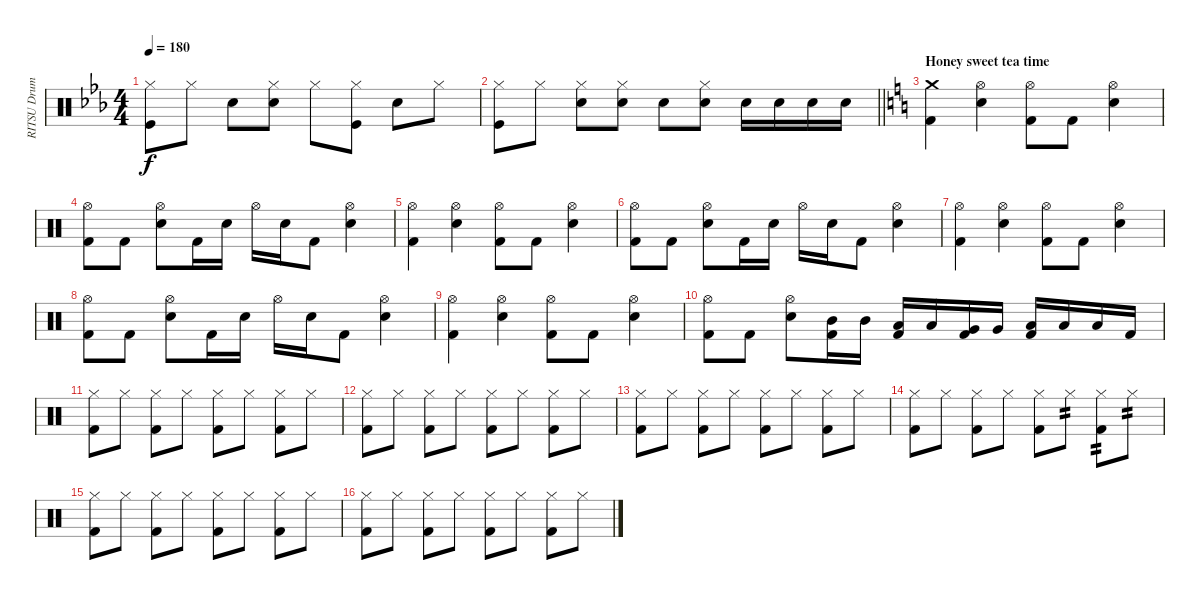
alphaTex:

\track ("RITSU Drums" "RITSU Drum") {instrument percussion}
\staff {score}
\articulation defaults
\ts (4 4)
\tempo 180
\clef neutral
\ks cminor
("Hi-Hat (closed)" "Kick (hit)").8{dy f} "Hi-Hat (closed)".8 "Snare (hit) 2".8 ("Snare (hit) 2" "Hi-Hat (closed)").8 "Hi-Hat (closed)".8 ("Hi-Hat (closed)" "Kick (hit)").8 "Snare (hit) 2".8 "Hi-Hat (closed)".8 |
\barLineRight lightlight
("Hi-Hat (closed)" "Kick (hit)").8 "Hi-Hat (closed)".8 ("Hi-Hat (closed)" "Snare (hit) 2").8 ("Snare (hit) 2" "Hi-Hat (closed)").8 "Snare (hit) 2".8 ("Snare (hit) 2" "Hi-Hat (closed)").8 "Snare (hit) 2".16 "Snare (hit) 2".16 "Snare (hit) 2".16 "Snare (hit) 2".16 |
\section ("" "Honey sweet tea time")
\ks c
("Crash medium (hit)" "Kick (hit) 2").4 ("Hi-Hat (open)" "Electric Snare (hit)").4 ("Hi-Hat (open)" "Kick (hit) 2").8 "Kick (hit) 2".8 ("Hi-Hat (open)" "Electric Snare (hit)").4 |
("Hi-Hat (open)" "Kick (hit) 2").8 "Kick (hit) 2".8 ("Hi-Hat (open)" "Electric Snare (hit)").8 "Kick (hit) 2".16 "Electric Snare (hit)".16 "Hi-Hat (open)".16 "Electric Snare (hit)".16 "Kick (hit) 2".8 ("Hi-Hat (open)" "Electric Snare (hit)").4 |
("Hi-Hat (open)" "Kick (hit) 2").4 ("Hi-Hat (open)" "Electric Snare (hit)").4 ("Hi-Hat (open)" "Kick (hit) 2").8 "Kick (hit) 2".8 ("Hi-Hat (open)" "Electric Snare (hit)").4 |
("Hi-Hat (open)" "Kick (hit) 2").8 "Kick (hit) 2".8 ("Hi-Hat (open)" "Electric Snare (hit)").8 "Kick (hit) 2".16 "Electric Snare (hit)".16 "Hi-Hat (open)".16 "Electric Snare (hit)".16 "Kick (hit) 2".8 ("Hi-Hat (open)" "Electric Snare (hit)").4 |
("Hi-Hat (open)" "Kick (hit) 2").4 ("Hi-Hat (open)" "Electric Snare (hit)").4 ("Hi-Hat (open)" "Kick (hit) 2").8 "Kick (hit) 2".8 ("Hi-Hat (open)" "Electric Snare (hit)").4 |
("Hi-Hat (open)" "Kick (hit) 2").8 "Kick (hit) 2".8 ("Hi-Hat (open)" "Electric Snare (hit)").8 "Kick (hit) 2".16 "Electric Snare (hit)".16 "Hi-Hat (open)".16 "Electric Snare (hit)".16 "Kick (hit) 2".8 ("Hi-Hat (open)" "Electric Snare (hit)").4 |
("Hi-Hat (open)" "Kick (hit) 2").4 ("Hi-Hat (open)" "Electric Snare (hit)").4 ("Hi-Hat (open)" "Kick (hit) 2").8 "Kick (hit) 2".8 ("Hi-Hat (open)" "Electric Snare (hit)").4 |
("Hi-Hat (open)" "Kick (hit) 2").8 "Kick (hit) 2".8 ("Hi-Hat (open)" "Electric Snare (hit)").8 ("Mid Tom (hit)" "Kick (hit) 2").16 "Mid Tom (hit)".16 ("Low Tom (hit)" "Kick (hit) 2").16 "Low Tom (hit)".16 ("Very Low Tom (hit)" "Kick (hit) 2").16 "Very Low Tom (hit)".16 ("Low Floor Tom (hit)" "Kick (hit) 2").16 "Low Floor Tom (hit)".16 "Low Floor Tom (hit)".16 "Kick (hit) 2".16 |
("Hi-Hat (closed)" "Kick (hit) 2").8 "Hi-Hat (closed)".8 ("Hi-Hat (closed)" "Kick (hit) 2").8 "Hi-Hat (closed)".8 ("Hi-Hat (closed)" "Kick (hit) 2").8 "Hi-Hat (closed)".8 ("Hi-Hat (closed)" "Kick (hit) 2").8 "Hi-Hat (closed)".8 |
("Hi-Hat (closed)" "Kick (hit) 2").8 "Hi-Hat (closed)".8 ("Hi-Hat (closed)" "Kick (hit) 2").8 "Hi-Hat (closed)".8 ("Hi-Hat (closed)" "Kick (hit) 2").8 "Hi-Hat (closed)".8 ("Hi-Hat (closed)" "Kick (hit) 2").8 "Hi-Hat (closed)".8 |
("Hi-Hat (closed)" "Kick (hit) 2").8 "Hi-Hat (closed)".8 ("Hi-Hat (closed)" "Kick (hit) 2").8 "Hi-Hat (closed)".8 ("Hi-Hat (closed)" "Kick (hit) 2").8 "Hi-Hat (closed)".8 ("Hi-Hat (closed)" "Kick (hit) 2").8 "Hi-Hat (closed)".8 |
("Hi-Hat (closed)" "Kick (hit) 2").8 "Hi-Hat (closed)".8 ("Hi-Hat (closed)" "Kick (hit) 2").8 "Hi-Hat (closed)".8 ("Hi-Hat (closed)" "Kick (hit) 2").8 "Hi-Hat (closed)".8{tp 2} ("Hi-Hat (closed)" "Kick (hit) 2").8{tp 2} "Hi-Hat (closed)".8{tp 2} |
("Hi-Hat (closed)" "Kick (hit) 2").8 "Hi-Hat (closed)".8 ("Hi-Hat (closed)" "Kick (hit) 2").8 "Hi-Hat (closed)".8 ("Hi-Hat (closed)" "Kick (hit) 2").8 "Hi-Hat (closed)".8 ("Hi-Hat (closed)" "Kick (hit) 2").8 "Hi-Hat (closed)".8 |
("Hi-Hat (closed)" "Kick (hit) 2").8 "Hi-Hat (closed)".8 ("Hi-Hat (closed)" "Kick (hit) 2").8 "Hi-Hat (closed)".8 ("Hi-Hat (closed)" "Kick (hit) 2").8 "Hi-Hat (closed)".8 ("Hi-Hat (closed)" "Kick (hit) 2").8 "Hi-Hat (closed)".8
